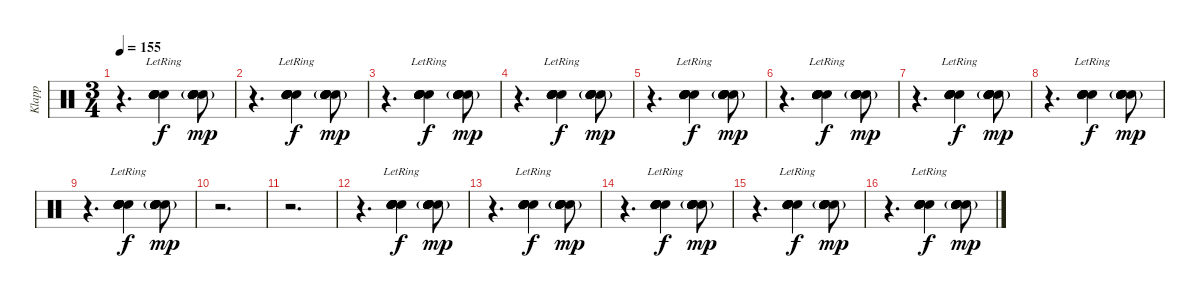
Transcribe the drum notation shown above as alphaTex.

\track ("Klapp" "Klapp") {instrument percussion}
\staff {score}
\articulation defaults
\ts (3 4)
\tempo 155
\clef neutral
\ks c
r.4{d dy mp} ("Hand Clap (hit)"{lr} "Hand Clap (hit)"{lr} "Hand Clap (hit)"{lr} "Hand Clap (hit)"{lr} "Hand Clap (hit)"{lr} "Hand Clap (hit)"{lr}).4{dy f} ("Hand Clap (hit)"{g} "Hand Clap (hit)"{g} "Hand Clap (hit)"{g} "Hand Clap (hit)"{g} "Hand Clap (hit)"{g} "Hand Clap (hit)"{g}).8{dy mp} |
r.4{d} ("Hand Clap (hit)"{lr} "Hand Clap (hit)"{lr} "Hand Clap (hit)"{lr} "Hand Clap (hit)"{lr} "Hand Clap (hit)"{lr} "Hand Clap (hit)"{lr}).4{dy f} ("Hand Clap (hit)"{g} "Hand Clap (hit)"{g} "Hand Clap (hit)"{g} "Hand Clap (hit)"{g} "Hand Clap (hit)"{g} "Hand Clap (hit)"{g}).8{dy mp} |
r.4{d} ("Hand Clap (hit)"{lr} "Hand Clap (hit)"{lr} "Hand Clap (hit)"{lr} "Hand Clap (hit)"{lr} "Hand Clap (hit)"{lr} "Hand Clap (hit)"{lr}).4{dy f} ("Hand Clap (hit)"{g} "Hand Clap (hit)"{g} "Hand Clap (hit)"{g} "Hand Clap (hit)"{g} "Hand Clap (hit)"{g} "Hand Clap (hit)"{g}).8{dy mp} |
r.4{d} ("Hand Clap (hit)"{lr} "Hand Clap (hit)"{lr} "Hand Clap (hit)"{lr} "Hand Clap (hit)"{lr} "Hand Clap (hit)"{lr} "Hand Clap (hit)"{lr}).4{dy f} ("Hand Clap (hit)"{g} "Hand Clap (hit)"{g} "Hand Clap (hit)"{g} "Hand Clap (hit)"{g} "Hand Clap (hit)"{g} "Hand Clap (hit)"{g}).8{dy mp} |
r.4{d} ("Hand Clap (hit)"{lr} "Hand Clap (hit)"{lr} "Hand Clap (hit)"{lr} "Hand Clap (hit)"{lr} "Hand Clap (hit)"{lr} "Hand Clap (hit)"{lr}).4{dy f} ("Hand Clap (hit)"{g} "Hand Clap (hit)"{g} "Hand Clap (hit)"{g} "Hand Clap (hit)"{g} "Hand Clap (hit)"{g} "Hand Clap (hit)"{g}).8{dy mp} |
r.4{d} ("Hand Clap (hit)"{lr} "Hand Clap (hit)"{lr} "Hand Clap (hit)"{lr} "Hand Clap (hit)"{lr} "Hand Clap (hit)"{lr} "Hand Clap (hit)"{lr}).4{dy f} ("Hand Clap (hit)"{g} "Hand Clap (hit)"{g} "Hand Clap (hit)"{g} "Hand Clap (hit)"{g} "Hand Clap (hit)"{g} "Hand Clap (hit)"{g}).8{dy mp} |
r.4{d} ("Hand Clap (hit)"{lr} "Hand Clap (hit)"{lr} "Hand Clap (hit)"{lr} "Hand Clap (hit)"{lr} "Hand Clap (hit)"{lr} "Hand Clap (hit)"{lr}).4{dy f} ("Hand Clap (hit)"{g} "Hand Clap (hit)"{g} "Hand Clap (hit)"{g} "Hand Clap (hit)"{g} "Hand Clap (hit)"{g} "Hand Clap (hit)"{g}).8{dy mp} |
r.4{d} ("Hand Clap (hit)"{lr} "Hand Clap (hit)"{lr} "Hand Clap (hit)"{lr} "Hand Clap (hit)"{lr} "Hand Clap (hit)"{lr} "Hand Clap (hit)"{lr}).4{dy f} ("Hand Clap (hit)"{g} "Hand Clap (hit)"{g} "Hand Clap (hit)"{g} "Hand Clap (hit)"{g} "Hand Clap (hit)"{g} "Hand Clap (hit)"{g}).8{dy mp} |
r.4{d} ("Hand Clap (hit)"{lr} "Hand Clap (hit)"{lr} "Hand Clap (hit)"{lr} "Hand Clap (hit)"{lr} "Hand Clap (hit)"{lr} "Hand Clap (hit)"{lr}).4{dy f} ("Hand Clap (hit)"{g} "Hand Clap (hit)"{g} "Hand Clap (hit)"{g} "Hand Clap (hit)"{g} "Hand Clap (hit)"{g} "Hand Clap (hit)"{g}).8{dy mp} |
r.2{d} |
r.2{d} |
r.4{d} ("Hand Clap (hit)"{lr} "Hand Clap (hit)"{lr} "Hand Clap (hit)"{lr} "Hand Clap (hit)"{lr} "Hand Clap (hit)"{lr} "Hand Clap (hit)"{lr}).4{dy f} ("Hand Clap (hit)"{g} "Hand Clap (hit)"{g} "Hand Clap (hit)"{g} "Hand Clap (hit)"{g} "Hand Clap (hit)"{g} "Hand Clap (hit)"{g}).8{dy mp} |
r.4{d} ("Hand Clap (hit)"{lr} "Hand Clap (hit)"{lr} "Hand Clap (hit)"{lr} "Hand Clap (hit)"{lr} "Hand Clap (hit)"{lr} "Hand Clap (hit)"{lr}).4{dy f} ("Hand Clap (hit)"{g} "Hand Clap (hit)"{g} "Hand Clap (hit)"{g} "Hand Clap (hit)"{g} "Hand Clap (hit)"{g} "Hand Clap (hit)"{g}).8{dy mp} |
r.4{d} ("Hand Clap (hit)"{lr} "Hand Clap (hit)"{lr} "Hand Clap (hit)"{lr} "Hand Clap (hit)"{lr} "Hand Clap (hit)"{lr} "Hand Clap (hit)"{lr}).4{dy f} ("Hand Clap (hit)"{g} "Hand Clap (hit)"{g} "Hand Clap (hit)"{g} "Hand Clap (hit)"{g} "Hand Clap (hit)"{g} "Hand Clap (hit)"{g}).8{dy mp} |
r.4{d} ("Hand Clap (hit)"{lr} "Hand Clap (hit)"{lr} "Hand Clap (hit)"{lr} "Hand Clap (hit)"{lr} "Hand Clap (hit)"{lr} "Hand Clap (hit)"{lr}).4{dy f} ("Hand Clap (hit)"{g} "Hand Clap (hit)"{g} "Hand Clap (hit)"{g} "Hand Clap (hit)"{g} "Hand Clap (hit)"{g} "Hand Clap (hit)"{g}).8{dy mp} |
r.4{d} ("Hand Clap (hit)"{lr} "Hand Clap (hit)"{lr} "Hand Clap (hit)"{lr} "Hand Clap (hit)"{lr} "Hand Clap (hit)"{lr} "Hand Clap (hit)"{lr}).4{dy f} ("Hand Clap (hit)"{g} "Hand Clap (hit)"{g} "Hand Clap (hit)"{g} "Hand Clap (hit)"{g} "Hand Clap (hit)"{g} "Hand Clap (hit)"{g}).8{dy mp}
